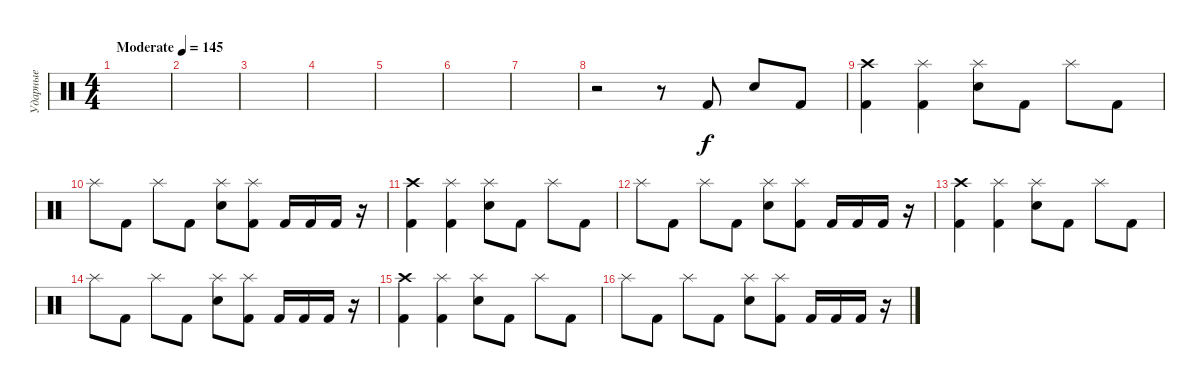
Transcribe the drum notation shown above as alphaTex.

\track ("Ударные" "Ударные") {instrument percussion}
\staff {score}
\articulation defaults
\ts (4 4)
\tempo (145 "Moderate")
\clef neutral
\ks c
|
|
|
|
|
|
|
r.2 r.8 "Kick (hit) 2".8 "Snare (hit) 2".8 "Kick (hit) 2".8 |
("Crash high (hit)" "Kick (hit) 2").4 ("Splash (hit)" "Kick (hit) 2").4 ("Splash (hit)" "Snare (hit) 2").8 "Kick (hit) 2".8 "Splash (hit)".8 "Kick (hit) 2".8 |
"Splash (hit)".8 "Kick (hit) 2".8 "Splash (hit)".8 "Kick (hit) 2".8 ("Splash (hit)" "Snare (hit) 2").8 ("Splash (hit)" "Kick (hit) 2").8 "Kick (hit) 2".16 "Kick (hit) 2".16 "Kick (hit) 2".16 r.16 |
("Crash high (hit)" "Kick (hit) 2").4 ("Splash (hit)" "Kick (hit) 2").4 ("Splash (hit)" "Snare (hit) 2").8 "Kick (hit) 2".8 "Splash (hit)".8 "Kick (hit) 2".8 |
"Splash (hit)".8 "Kick (hit) 2".8 "Splash (hit)".8 "Kick (hit) 2".8 ("Splash (hit)" "Snare (hit) 2").8 ("Splash (hit)" "Kick (hit) 2").8 "Kick (hit) 2".16 "Kick (hit) 2".16 "Kick (hit) 2".16 r.16 |
("Crash high (hit)" "Kick (hit) 2").4 ("Splash (hit)" "Kick (hit) 2").4 ("Splash (hit)" "Snare (hit) 2").8 "Kick (hit) 2".8 "Splash (hit)".8 "Kick (hit) 2".8 |
"Splash (hit)".8 "Kick (hit) 2".8 "Splash (hit)".8 "Kick (hit) 2".8 ("Splash (hit)" "Snare (hit) 2").8 ("Splash (hit)" "Kick (hit) 2").8 "Kick (hit) 2".16 "Kick (hit) 2".16 "Kick (hit) 2".16 r.16 |
("Crash high (hit)" "Kick (hit) 2").4 ("Splash (hit)" "Kick (hit) 2").4 ("Splash (hit)" "Snare (hit) 2").8 "Kick (hit) 2".8 "Splash (hit)".8 "Kick (hit) 2".8 |
"Splash (hit)".8 "Kick (hit) 2".8 "Splash (hit)".8 "Kick (hit) 2".8 ("Splash (hit)" "Snare (hit) 2").8 ("Splash (hit)" "Kick (hit) 2").8 "Kick (hit) 2".16 "Kick (hit) 2".16 "Kick (hit) 2".16 r.16
